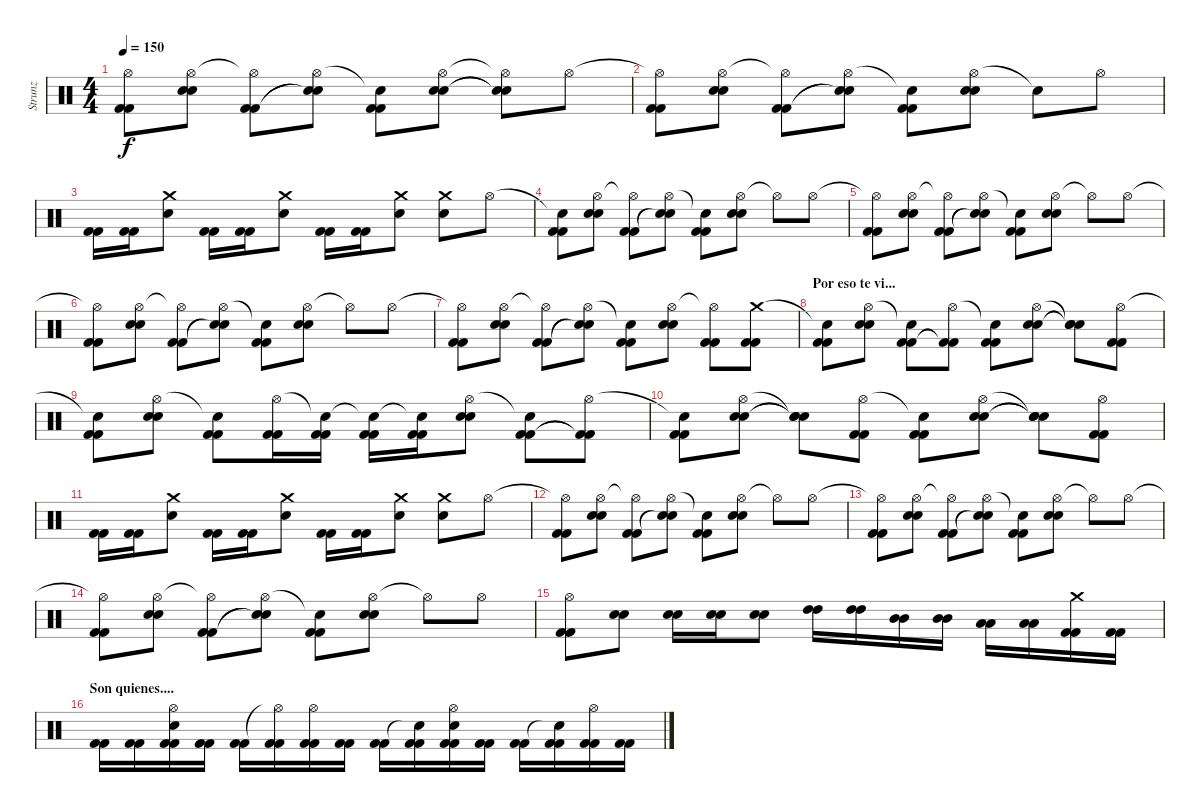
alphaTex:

\track ("Strunz" "Strunz") {instrument percussion}
\staff {score}
\articulation defaults
\ts (4 4)
\tempo 150
\clef neutral
\ks c
("Hi-Hat (open)"{t} "Kick (hit) 2" "Kick (hit) 2").8{dy f} ("Hi-Hat (open)" "Snare (hit) 2" "Snare (hit) 2").8 ("Hi-Hat (open)"{t} "Kick (hit) 2" "Kick (hit) 2").8 ("Hi-Hat (open)" "Snare (hit)"{t} "Snare (hit)"{t}).8 ("Snare (hit)"{t} "Kick (hit) 2" "Kick (hit) 2").8 ("Hi-Hat (open)" "Snare (hit) 2" "Snare (hit) 2").8 ("Hi-Hat (open)"{t} "Snare (hit)"{t} "Snare (hit)"{t}).8 "Hi-Hat (open)".8 |
("Hi-Hat (open)"{t} "Kick (hit) 2" "Kick (hit) 2").8 ("Hi-Hat (open)" "Snare (hit) 2" "Snare (hit) 2").8 ("Hi-Hat (open)"{t} "Kick (hit) 2" "Kick (hit) 2").8 ("Hi-Hat (open)" "Snare (hit)"{t} "Snare (hit)"{t}).8 ("Snare (hit)"{t} "Kick (hit) 2" "Kick (hit) 2").8 ("Hi-Hat (open)" "Snare (hit) 2" "Snare (hit) 2").8 "Snare (hit)"{t}.8 "Hi-Hat (open)".8 |
("Kick (hit) 2" "Kick (hit) 2").16 ("Kick (hit) 2" "Kick (hit) 2").16 ("Crash medium (hit)" "Snare (hit) 2").8 ("Kick (hit) 2" "Kick (hit) 2").16 ("Kick (hit) 2" "Kick (hit) 2").16 ("Crash medium (hit)" "Snare (hit) 2").8 ("Kick (hit) 2" "Kick (hit) 2").16 ("Kick (hit) 2" "Kick (hit) 2").16 ("Crash medium (hit)" "Snare (hit) 2").8 ("Crash medium (hit)" "Snare (hit) 2").8 "Hi-Hat (open)".8 |
("Snare (hit)"{t} "Kick (hit) 2" "Kick (hit) 2").8 ("Hi-Hat (open)" "Snare (hit) 2" "Snare (hit) 2").8 ("Hi-Hat (open)"{t} "Kick (hit) 2" "Kick (hit) 2").8 ("Hi-Hat (open)" "Snare (hit)"{t} "Snare (hit)"{t}).8 ("Snare (hit)"{t} "Kick (hit) 2" "Kick (hit) 2").8 ("Hi-Hat (open)" "Snare (hit) 2" "Snare (hit) 2").8 "Hi-Hat (open)"{t}.8 "Hi-Hat (open)".8 |
("Hi-Hat (open)"{t} "Kick (hit) 2" "Kick (hit) 2").8 ("Hi-Hat (open)" "Snare (hit) 2" "Snare (hit) 2").8 ("Hi-Hat (open)"{t} "Kick (hit) 2" "Kick (hit) 2").8 ("Hi-Hat (open)" "Snare (hit)"{t} "Snare (hit)"{t}).8 ("Snare (hit)"{t} "Kick (hit) 2" "Kick (hit) 2").8 ("Hi-Hat (open)" "Snare (hit) 2" "Snare (hit) 2").8 "Hi-Hat (open)"{t}.8 "Hi-Hat (open)".8 |
("Hi-Hat (open)"{t} "Kick (hit) 2" "Kick (hit) 2").8 ("Hi-Hat (open)" "Snare (hit) 2" "Snare (hit) 2").8 ("Hi-Hat (open)"{t} "Kick (hit) 2" "Kick (hit) 2").8 ("Hi-Hat (open)" "Snare (hit)"{t} "Snare (hit)"{t}).8 ("Snare (hit)"{t} "Kick (hit) 2" "Kick (hit) 2").8 ("Hi-Hat (open)" "Snare (hit) 2" "Snare (hit) 2").8 "Hi-Hat (open)"{t}.8 "Hi-Hat (open)".8 |
("Hi-Hat (open)"{t} "Kick (hit) 2" "Kick (hit) 2").8 ("Hi-Hat (open)" "Snare (hit) 2" "Snare (hit) 2").8 ("Hi-Hat (open)"{t} "Kick (hit) 2" "Kick (hit) 2").8 ("Hi-Hat (open)" "Snare (hit)"{t} "Snare (hit)"{t}).8 ("Snare (hit)"{t} "Kick (hit) 2" "Kick (hit) 2").8 ("Hi-Hat (open)" "Snare (hit) 2" "Snare (hit) 2").8 ("Hi-Hat (open)"{t} "Kick (hit) 2" "Kick (hit) 2").8 ("Crash medium (hit)" "Kick (hit) 2" "Kick (hit) 2").8 |
\section ("" "Por eso te vi...")
("Snare (hit)"{t} "Kick (hit) 2" "Kick (hit) 2").8 ("Hi-Hat (open)" "Snare (hit) 2" "Snare (hit) 2").8 ("Snare (hit)"{t} "Kick (hit) 2" "Kick (hit) 2").8 ("Hi-Hat (open)" "Kick (hit) 2"{t} "Kick (hit) 2"{t}).8 ("Snare (hit)"{t} "Kick (hit) 2" "Kick (hit) 2").8 ("Hi-Hat (open)" "Snare (hit) 2" "Snare (hit) 2").8 ("Snare (hit)"{t} "Snare (hit) 2"{t} "Snare (hit) 2"{t}).8 ("Hi-Hat (open)" "Kick (hit) 2" "Kick (hit) 2").8 |
("Snare (hit)"{t} "Kick (hit) 2" "Kick (hit) 2").8 ("Hi-Hat (open)" "Snare (hit) 2" "Snare (hit) 2").8 ("Snare (hit)"{t} "Kick (hit) 2" "Kick (hit) 2").8 ("Hi-Hat (open)" "Kick (hit) 2" "Kick (hit) 2").16 ("Snare (hit)"{t} "Kick (hit) 2" "Kick (hit) 2").16 ("Snare (hit)"{t} "Kick (hit) 2" "Kick (hit) 2").16 ("Snare (hit)"{t} "Kick (hit) 2" "Kick (hit) 2").16 ("Hi-Hat (open)" "Snare (hit) 2" "Snare (hit) 2").8 ("Snare (hit)"{t} "Kick (hit) 2" "Kick (hit) 2").8 ("Hi-Hat (open)" "Kick (hit) 2"{t} "Kick (hit) 2"{t}).8 |
("Snare (hit)"{t} "Kick (hit) 2" "Kick (hit) 2").8 ("Hi-Hat (open)" "Snare (hit) 2" "Snare (hit) 2").8 ("Snare (hit)"{t} "Snare (hit) 2"{t} "Snare (hit) 2"{t}).8 ("Hi-Hat (open)" "Kick (hit) 2" "Kick (hit) 2").8 ("Snare (hit)"{t} "Kick (hit) 2" "Kick (hit) 2").8 ("Hi-Hat (open)" "Snare (hit) 2" "Snare (hit) 2").8 ("Snare (hit)"{t} "Snare (hit)"{t} "Snare (hit)"{t}).8 ("Hi-Hat (open)" "Kick (hit) 2" "Kick (hit) 2").8 |
("Kick (hit) 2" "Kick (hit) 2").16 ("Kick (hit) 2" "Kick (hit) 2").16 ("Crash medium (hit)" "Snare (hit) 2").8 ("Kick (hit) 2" "Kick (hit) 2").16 ("Kick (hit) 2" "Kick (hit) 2").16 ("Crash medium (hit)" "Snare (hit) 2").8 ("Kick (hit) 2" "Kick (hit) 2").16 ("Kick (hit) 2" "Kick (hit) 2").16 ("Crash medium (hit)" "Snare (hit) 2").8 ("Crash medium (hit)" "Snare (hit) 2").8 "Hi-Hat (open)".8 |
("Hi-Hat (open)"{t} "Kick (hit) 2" "Kick (hit) 2").8 ("Hi-Hat (open)" "Snare (hit) 2" "Snare (hit) 2").8 ("Hi-Hat (open)"{t} "Kick (hit) 2" "Kick (hit) 2").8 ("Hi-Hat (open)" "Snare (hit)"{t} "Snare (hit)"{t}).8 ("Snare (hit)"{t} "Kick (hit) 2" "Kick (hit) 2").8 ("Hi-Hat (open)" "Snare (hit) 2" "Snare (hit) 2").8 "Hi-Hat (open)"{t}.8 "Hi-Hat (open)".8 |
("Hi-Hat (open)"{t} "Kick (hit) 2" "Kick (hit) 2").8 ("Hi-Hat (open)" "Snare (hit) 2" "Snare (hit) 2").8 ("Hi-Hat (open)"{t} "Kick (hit) 2" "Kick (hit) 2").8 ("Hi-Hat (open)" "Snare (hit)"{t} "Snare (hit)"{t}).8 ("Snare (hit)"{t} "Kick (hit) 2" "Kick (hit) 2").8 ("Hi-Hat (open)" "Snare (hit) 2" "Snare (hit) 2").8 "Hi-Hat (open)"{t}.8 "Hi-Hat (open)".8 |
("Hi-Hat (open)"{t} "Kick (hit) 2" "Kick (hit) 2").8 ("Hi-Hat (open)" "Snare (hit) 2" "Snare (hit) 2").8 ("Hi-Hat (open)"{t} "Kick (hit) 2" "Kick (hit) 2").8 ("Hi-Hat (open)" "Snare (hit)"{t} "Snare (hit)"{t}).8 ("Snare (hit)"{t} "Kick (hit) 2" "Kick (hit) 2").8 ("Hi-Hat (open)" "Snare (hit) 2" "Snare (hit) 2").8 "Hi-Hat (open)"{t}.8 "Hi-Hat (open)".8 |
("Hi-Hat (open)" "Kick (hit) 2" "Kick (hit) 2").8 ("Snare (hit) 2" "Snare (hit) 2").8 ("Snare (hit) 2" "Snare (hit) 2").16 ("Snare (hit) 2" "Snare (hit) 2").16 ("Snare (hit) 2" "Snare (hit) 2").8 ("High Tom (hit)" "High Tom (hit)").16 ("High Tom (hit)" "High Tom (hit)").16 ("Mid Tom (hit)" "Mid Tom (hit)").16 ("Mid Tom (hit)" "Mid Tom (hit)").16 ("Low Tom (hit)" "Low Tom (hit)").16 ("Low Tom (hit)" "Low Tom (hit)").16 ("Crash medium (hit)" "Kick (hit) 2" "Kick (hit) 2").16 ("Kick (hit) 2" "Kick (hit) 2").16 |
\section ("" "Son quienes....")
("Kick (hit) 2" "Kick (hit) 2").16 ("Kick (hit) 2" "Kick (hit) 2").16 ("Hi-Hat (open)" "Snare (hit) 2" "Kick (hit) 2" "Kick (hit) 2").16 ("Kick (hit) 2" "Kick (hit) 2").16 ("Kick (hit) 2" "Kick (hit) 2").16 ("Hi-Hat (open)"{t} "Kick (hit) 2" "Kick (hit) 2").16 ("Hi-Hat (open)" "Kick (hit) 2" "Kick (hit) 2").16 ("Kick (hit) 2" "Kick (hit) 2").16 ("Kick (hit) 2" "Kick (hit) 2").16 ("Snare (hit)"{t} "Kick (hit) 2" "Kick (hit) 2").16 ("Hi-Hat (open)" "Snare (hit) 2" "Kick (hit) 2" "Kick (hit) 2").16 ("Kick (hit) 2" "Kick (hit) 2").16 ("Kick (hit) 2" "Kick (hit) 2").16 ("Snare (hit)"{t} "Kick (hit) 2" "Kick (hit) 2").16 ("Hi-Hat (open)" "Kick (hit) 2" "Kick (hit) 2").16 ("Kick (hit) 2" "Kick (hit) 2").16
